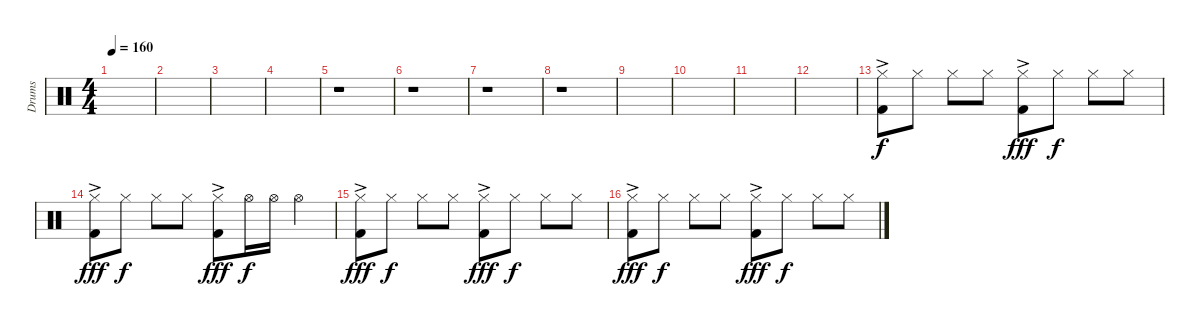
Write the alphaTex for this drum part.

\track ("Drums" "Drums") {instrument percussion}
\staff {score}
\articulation defaults
\ts (4 4)
\tempo 160
\clef neutral
\ks c
|
|
|
|
r.1 |
r.1 |
r.1 |
r.1 |
|
|
|
|
("Hi-Hat (closed)" "Kick (hit) 2"{ac}).8 "Hi-Hat (closed)".8{dy f} "Hi-Hat (closed)".8 "Hi-Hat (closed)".8 ("Hi-Hat (closed)" "Kick (hit) 2"{ac}).8{dy fff} "Hi-Hat (closed)".8{dy f} "Hi-Hat (closed)".8 "Hi-Hat (closed)".8 |
("Hi-Hat (closed)" "Kick (hit) 2"{ac}).8{dy fff} "Hi-Hat (closed)".8{dy f} "Hi-Hat (closed)".8 "Hi-Hat (closed)".8 ("Hi-Hat (closed)" "Kick (hit) 2"{ac}).8{dy fff} "Hi-Hat (open)".16{dy f} "Hi-Hat (open)".16 "Hi-Hat (open)".4 |
("Hi-Hat (closed)" "Kick (hit) 2"{ac}).8{dy fff} "Hi-Hat (closed)".8{dy f} "Hi-Hat (closed)".8 "Hi-Hat (closed)".8 ("Hi-Hat (closed)" "Kick (hit) 2"{ac}).8{dy fff} "Hi-Hat (closed)".8{dy f} "Hi-Hat (closed)".8 "Hi-Hat (closed)".8 |
("Hi-Hat (closed)" "Kick (hit) 2"{ac}).8{dy fff} "Hi-Hat (closed)".8{dy f} "Hi-Hat (closed)".8 "Hi-Hat (closed)".8 ("Hi-Hat (closed)" "Kick (hit) 2"{ac}).8{dy fff} "Hi-Hat (closed)".8{dy f} "Hi-Hat (closed)".8 "Hi-Hat (closed)".8
